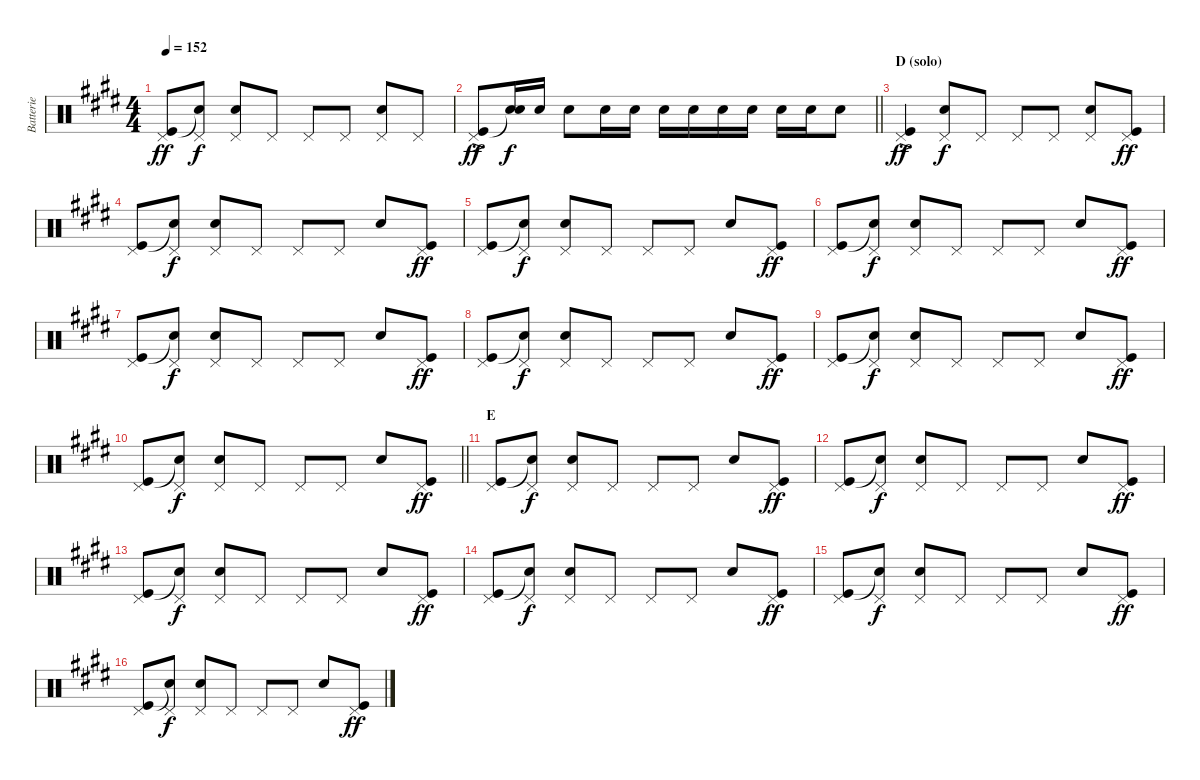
\track ("Batterie" "Batterie") {instrument percussion}
\staff {score}
\articulation defaults
\ts (4 4)
\tempo 152
\clef neutral
\ks e
("Pedal Hi-Hat (hit)" "Kick (hit)").8{dy ff} ("Pedal Hi-Hat (hit)" "Snare (hit)"{t}).8{dy f} ("Pedal Hi-Hat (hit)" "Electric Snare (hit)").8 "Pedal Hi-Hat (hit)".8 "Pedal Hi-Hat (hit)".8 "Pedal Hi-Hat (hit)".8 ("Pedal Hi-Hat (hit)" "Electric Snare (hit)").8 "Pedal Hi-Hat (hit)".8 |
\barLineRight lightlight
("Pedal Hi-Hat (hit)"{ac} "Kick (hit)"{ac}).8{dy ff} ("Electric Snare (hit)" "Snare (hit)"{t}).16{dy f} "Electric Snare (hit)".16 "Electric Snare (hit)".8 "Electric Snare (hit)".16 "Electric Snare (hit)".16 "Electric Snare (hit)".16 "Electric Snare (hit)".16 "Electric Snare (hit)".16 "Electric Snare (hit)".16 "Electric Snare (hit)".16 "Electric Snare (hit)".16 "Electric Snare (hit)".8 |
\section ("" "D (solo)")
("Pedal Hi-Hat (hit)"{ac} "Kick (hit)"{ac}).4{dy ff} ("Pedal Hi-Hat (hit)" "Electric Snare (hit)").8{dy f} "Pedal Hi-Hat (hit)".8 "Pedal Hi-Hat (hit)".8 "Pedal Hi-Hat (hit)".8 ("Pedal Hi-Hat (hit)" "Electric Snare (hit)").8 ("Pedal Hi-Hat (hit)" "Kick (hit)").8{dy ff} |
("Pedal Hi-Hat (hit)" "Kick (hit)").8 ("Pedal Hi-Hat (hit)" "Snare (hit)"{t}).8{dy f} ("Pedal Hi-Hat (hit)" "Electric Snare (hit)").8 "Pedal Hi-Hat (hit)".8 "Pedal Hi-Hat (hit)".8 "Pedal Hi-Hat (hit)".8 "Electric Snare (hit)".8 ("Pedal Hi-Hat (hit)" "Kick (hit)").8{dy ff} |
("Pedal Hi-Hat (hit)" "Kick (hit)").8 ("Pedal Hi-Hat (hit)" "Snare (hit)"{t}).8{dy f} ("Pedal Hi-Hat (hit)" "Electric Snare (hit)").8 "Pedal Hi-Hat (hit)".8 "Pedal Hi-Hat (hit)".8 "Pedal Hi-Hat (hit)".8 "Electric Snare (hit)".8 ("Pedal Hi-Hat (hit)" "Kick (hit)").8{dy ff} |
("Pedal Hi-Hat (hit)" "Kick (hit)").8 ("Pedal Hi-Hat (hit)" "Snare (hit)"{t}).8{dy f} ("Pedal Hi-Hat (hit)" "Electric Snare (hit)").8 "Pedal Hi-Hat (hit)".8 "Pedal Hi-Hat (hit)".8 "Pedal Hi-Hat (hit)".8 "Electric Snare (hit)".8 ("Pedal Hi-Hat (hit)" "Kick (hit)").8{dy ff} |
("Pedal Hi-Hat (hit)" "Kick (hit)").8 ("Pedal Hi-Hat (hit)" "Snare (hit)"{t}).8{dy f} ("Pedal Hi-Hat (hit)" "Electric Snare (hit)").8 "Pedal Hi-Hat (hit)".8 "Pedal Hi-Hat (hit)".8 "Pedal Hi-Hat (hit)".8 "Electric Snare (hit)".8 ("Pedal Hi-Hat (hit)" "Kick (hit)").8{dy ff} |
("Pedal Hi-Hat (hit)" "Kick (hit)").8 ("Pedal Hi-Hat (hit)" "Snare (hit)"{t}).8{dy f} ("Pedal Hi-Hat (hit)" "Electric Snare (hit)").8 "Pedal Hi-Hat (hit)".8 "Pedal Hi-Hat (hit)".8 "Pedal Hi-Hat (hit)".8 "Electric Snare (hit)".8 ("Pedal Hi-Hat (hit)" "Kick (hit)").8{dy ff} |
("Pedal Hi-Hat (hit)" "Kick (hit)").8 ("Pedal Hi-Hat (hit)" "Snare (hit)"{t}).8{dy f} ("Pedal Hi-Hat (hit)" "Electric Snare (hit)").8 "Pedal Hi-Hat (hit)".8 "Pedal Hi-Hat (hit)".8 "Pedal Hi-Hat (hit)".8 "Electric Snare (hit)".8 ("Pedal Hi-Hat (hit)" "Kick (hit)").8{dy ff} |
\barLineRight lightlight
("Pedal Hi-Hat (hit)" "Kick (hit)").8 ("Pedal Hi-Hat (hit)" "Snare (hit)"{t}).8{dy f} ("Pedal Hi-Hat (hit)" "Electric Snare (hit)").8 "Pedal Hi-Hat (hit)".8 "Pedal Hi-Hat (hit)".8 "Pedal Hi-Hat (hit)".8 "Electric Snare (hit)".8 ("Pedal Hi-Hat (hit)" "Kick (hit)").8{dy ff} |
\section ("" "E")
("Pedal Hi-Hat (hit)" "Kick (hit)").8 ("Pedal Hi-Hat (hit)" "Snare (hit)"{t}).8{dy f} ("Pedal Hi-Hat (hit)" "Electric Snare (hit)").8 "Pedal Hi-Hat (hit)".8 "Pedal Hi-Hat (hit)".8 "Pedal Hi-Hat (hit)".8 "Electric Snare (hit)".8 ("Pedal Hi-Hat (hit)" "Kick (hit)").8{dy ff} |
("Pedal Hi-Hat (hit)" "Kick (hit)").8 ("Pedal Hi-Hat (hit)" "Snare (hit)"{t}).8{dy f} ("Pedal Hi-Hat (hit)" "Electric Snare (hit)").8 "Pedal Hi-Hat (hit)".8 "Pedal Hi-Hat (hit)".8 "Pedal Hi-Hat (hit)".8 "Electric Snare (hit)".8 ("Pedal Hi-Hat (hit)" "Kick (hit)").8{dy ff} |
("Pedal Hi-Hat (hit)" "Kick (hit)").8 ("Pedal Hi-Hat (hit)" "Snare (hit)"{t}).8{dy f} ("Pedal Hi-Hat (hit)" "Electric Snare (hit)").8 "Pedal Hi-Hat (hit)".8 "Pedal Hi-Hat (hit)".8 "Pedal Hi-Hat (hit)".8 "Electric Snare (hit)".8 ("Pedal Hi-Hat (hit)" "Kick (hit)").8{dy ff} |
("Pedal Hi-Hat (hit)" "Kick (hit)").8 ("Pedal Hi-Hat (hit)" "Snare (hit)"{t}).8{dy f} ("Pedal Hi-Hat (hit)" "Electric Snare (hit)").8 "Pedal Hi-Hat (hit)".8 "Pedal Hi-Hat (hit)".8 "Pedal Hi-Hat (hit)".8 "Electric Snare (hit)".8 ("Pedal Hi-Hat (hit)" "Kick (hit)").8{dy ff} |
("Pedal Hi-Hat (hit)" "Kick (hit)").8 ("Pedal Hi-Hat (hit)" "Snare (hit)"{t}).8{dy f} ("Pedal Hi-Hat (hit)" "Electric Snare (hit)").8 "Pedal Hi-Hat (hit)".8 "Pedal Hi-Hat (hit)".8 "Pedal Hi-Hat (hit)".8 "Electric Snare (hit)".8 ("Pedal Hi-Hat (hit)" "Kick (hit)").8{dy ff} |
("Pedal Hi-Hat (hit)" "Kick (hit)").8 ("Pedal Hi-Hat (hit)" "Snare (hit)"{t}).8{dy f} ("Pedal Hi-Hat (hit)" "Electric Snare (hit)").8 "Pedal Hi-Hat (hit)".8 "Pedal Hi-Hat (hit)".8 "Pedal Hi-Hat (hit)".8 "Electric Snare (hit)".8 ("Pedal Hi-Hat (hit)" "Kick (hit)").8{dy ff}
